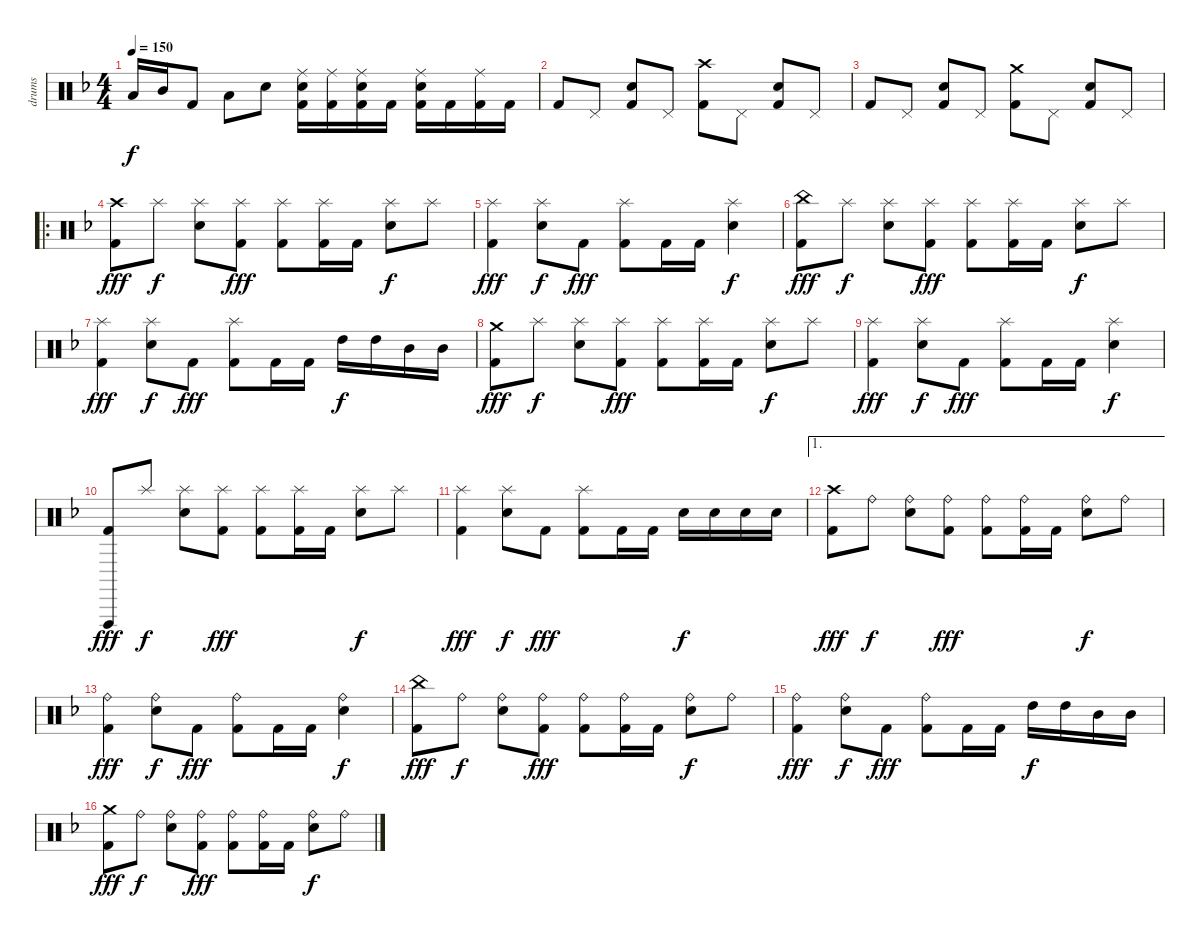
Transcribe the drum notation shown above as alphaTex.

\track ("drums" "drums") {instrument percussion}
\staff {score}
\articulation defaults
\ts (4 4)
\tempo 150
\clef neutral
\ks dminor "Low Tom (hit)".16{dy f} "Mid Tom (hit)".16 "Kick (hit) 2".8 "Low Tom (hit)".8 "Electric Snare (hit)".8
("Ride (middle)" "Electric Snare (hit)" "Kick (hit) 2").16 ("Ride (middle)" "Kick (hit) 2").16 ("Ride (middle)" "Electric Snare (hit)" "Kick (hit) 2").16 "Kick (hit) 2".16 ("Ride (middle)" "Electric Snare (hit)" "Kick (hit) 2").16 "Kick (hit) 2".16 ("Ride (middle)" "Kick (hit) 2").16 "Kick (hit) 2".16 |
"Kick (hit) 2".8 "Pedal Hi-Hat (hit)".8 ("Electric Snare (hit)" "Kick (hit) 2").8 "Pedal Hi-Hat (hit)".8 ("Crash high (hit)" "Kick (hit) 2").8 "Pedal Hi-Hat (hit)".8 ("Electric Snare (hit)" "Kick (hit) 2").8 "Pedal Hi-Hat (hit)".8 |
"Kick (hit) 2".8 "Pedal Hi-Hat (hit)".8 ("Electric Snare (hit)" "Kick (hit) 2").8 "Pedal Hi-Hat (hit)".8 ("Crash medium (hit)" "Kick (hit) 2").8 "Pedal Hi-Hat (hit)".8 ("Electric Snare (hit)" "Kick (hit) 2").8 "Pedal Hi-Hat (hit)".8 |
\ro
("Crash high (hit)" "Kick (hit) 2").8{dy fff} "Splash (hit)".8{dy f} ("Splash (hit)" "Electric Snare (hit)").8 ("Splash (hit)" "Kick (hit) 2").8{dy fff} ("Splash (hit)" "Kick (hit) 2").8 ("Splash (hit)" "Kick (hit) 2").16 "Kick (hit) 2".16 ("Splash (hit)" "Electric Snare (hit)").8{dy f} "Splash (hit)".8 |
("Splash (hit)" "Kick (hit) 2").4{dy fff} ("Splash (hit)" "Electric Snare (hit)").8{dy f} "Kick (hit) 2".8{dy fff} ("Splash (hit)" "Kick (hit) 2").8 "Kick (hit) 2".16 "Kick (hit) 2".16 ("Splash (hit)" "Electric Snare (hit)").4{dy f} |
("China (hit)" "Kick (hit) 2").8{dy fff} "Splash (hit)".8{dy f} ("Splash (hit)" "Electric Snare (hit)").8 ("Splash (hit)" "Kick (hit) 2").8{dy fff} ("Splash (hit)" "Kick (hit) 2").8 ("Splash (hit)" "Kick (hit) 2").16 "Kick (hit) 2".16 ("Splash (hit)" "Electric Snare (hit)").8{dy f} "Splash (hit)".8 |
("Splash (hit)" "Kick (hit) 2").4{dy fff} ("Splash (hit)" "Electric Snare (hit)").8{dy f} "Kick (hit) 2".8{dy fff} ("Splash (hit)" "Kick (hit) 2").8 "Kick (hit) 2".16 "Kick (hit) 2".16 "High Tom (hit)".16{dy f} "High Tom (hit)".16 "Mid Tom (hit)".16 "Mid Tom (hit)".16 |
("Crash medium (hit)" "Kick (hit) 2").8{dy fff} "Splash (hit)".8{dy f} ("Splash (hit)" "Electric Snare (hit)").8 ("Splash (hit)" "Kick (hit) 2").8{dy fff} ("Splash (hit)" "Kick (hit) 2").8 ("Splash (hit)" "Kick (hit) 2").16 "Kick (hit) 2".16 ("Splash (hit)" "Electric Snare (hit)").8{dy f} "Splash (hit)".8 |
("Splash (hit)" "Kick (hit) 2").4{dy fff} ("Splash (hit)" "Electric Snare (hit)").8{dy f} "Kick (hit) 2".8{dy fff} ("Splash (hit)" "Kick (hit) 2").8 "Kick (hit) 2".16 "Kick (hit) 2".16 ("Splash (hit)" "Electric Snare (hit)").4{dy f} |
("Vibraslap (hit)" "Kick (hit) 2").8{dy fff} "Splash (hit)".8{dy f} ("Splash (hit)" "Electric Snare (hit)").8 ("Splash (hit)" "Kick (hit) 2").8{dy fff} ("Splash (hit)" "Kick (hit) 2").8 ("Splash (hit)" "Kick (hit) 2").16 "Kick (hit) 2".16 ("Splash (hit)" "Electric Snare (hit)").8{dy f} "Splash (hit)".8 |
("Splash (hit)" "Kick (hit) 2").4{dy fff} ("Splash (hit)" "Electric Snare (hit)").8{dy f} "Kick (hit) 2".8{dy fff} ("Splash (hit)" "Kick (hit) 2").8 "Kick (hit) 2".16 "Kick (hit) 2".16 "Electric Snare (hit)".16{dy f} "Electric Snare (hit)".16 "Electric Snare (hit)".16 "Electric Snare (hit)".16 |
\ae 1
("Crash high (hit)" "Kick (hit) 2").8{dy fff} "Ride (bell)".8{dy f} ("Ride (bell)" "Electric Snare (hit)").8 ("Ride (bell)" "Kick (hit) 2").8{dy fff} ("Ride (bell)" "Kick (hit) 2").8 ("Ride (bell)" "Kick (hit) 2").16 "Kick (hit) 2".16 ("Ride (bell)" "Electric Snare (hit)").8{dy f} "Ride (bell)".8 |
("Ride (bell)" "Kick (hit) 2").4{dy fff} ("Ride (bell)" "Electric Snare (hit)").8{dy f} "Kick (hit) 2".8{dy fff} ("Ride (bell)" "Kick (hit) 2").8 "Kick (hit) 2".16 "Kick (hit) 2".16 ("Ride (bell)" "Electric Snare (hit)").4{dy f} |
("China (hit)" "Kick (hit) 2").8{dy fff} "Ride (bell)".8{dy f} ("Ride (bell)" "Electric Snare (hit)").8 ("Ride (bell)" "Kick (hit) 2").8{dy fff} ("Ride (bell)" "Kick (hit) 2").8 ("Ride (bell)" "Kick (hit) 2").16 "Kick (hit) 2".16 ("Ride (bell)" "Electric Snare (hit)").8{dy f} "Ride (bell)".8 |
("Ride (bell)" "Kick (hit) 2").4{dy fff} ("Ride (bell)" "Electric Snare (hit)").8{dy f} "Kick (hit) 2".8{dy fff} ("Ride (bell)" "Kick (hit) 2").8 "Kick (hit) 2".16 "Kick (hit) 2".16 "High Tom (hit)".16{dy f} "High Tom (hit)".16 "Mid Tom (hit)".16 "Mid Tom (hit)".16 |
("Crash medium (hit)" "Kick (hit) 2").8{dy fff} "Ride (bell)".8{dy f} ("Ride (bell)" "Electric Snare (hit)").8 ("Ride (bell)" "Kick (hit) 2").8{dy fff} ("Ride (bell)" "Kick (hit) 2").8 ("Ride (bell)" "Kick (hit) 2").16 "Kick (hit) 2".16 ("Ride (bell)" "Electric Snare (hit)").8{dy f} "Ride (bell)".8
